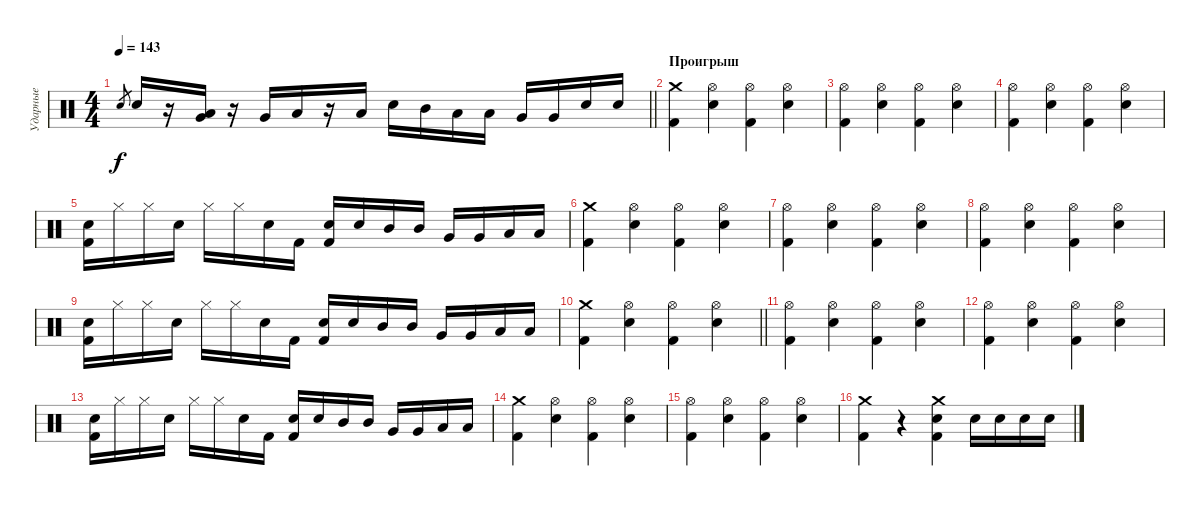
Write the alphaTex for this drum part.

\track ("Ударные" "Ударные") {instrument percussion}
\staff {score}
\articulation defaults
\ts (4 4)
\tempo 143
\clef neutral
\barLineRight lightlight
\ks c "Snare (hit) 2".8{gr dy f} "Snare (hit) 2".16
r.16 ("Low Tom (hit)" "Very Low Tom (hit)").16 r.16 "Very Low Tom (hit)".16 "Low Floor Tom (hit)".16 r.16 "Low Floor Tom (hit)".16 "Snare (hit) 2".16 "Mid Tom (hit)".16 "Low Tom (hit)".16 "Low Tom (hit)".16 "Very Low Tom (hit)".16 "Very Low Tom (hit)".16 "Snare (hit) 2".16 "Snare (hit) 2".16 |
\section ("" "Проигрыш")
("Kick (hit) 2" "Crash medium (hit)").4 ("Hi-Hat (open)" "Snare (hit) 2").4 ("Hi-Hat (open)" "Kick (hit) 2").4 ("Hi-Hat (open)" "Snare (hit) 2").4 |
("Kick (hit) 2" "Hi-Hat (open)").4 ("Hi-Hat (open)" "Snare (hit) 2").4 ("Hi-Hat (open)" "Kick (hit) 2").4 ("Hi-Hat (open)" "Snare (hit) 2").4 |
("Kick (hit) 2" "Hi-Hat (open)").4 ("Hi-Hat (open)" "Snare (hit) 2").4 ("Hi-Hat (open)" "Kick (hit) 2").4 ("Hi-Hat (open)" "Snare (hit) 2").4 |
("Kick (hit) 2" "Snare (hit) 2").16 "Hi-Hat (closed)".16 "Hi-Hat (closed)".16 "Snare (hit) 2".16 "Hi-Hat (closed)".16 "Hi-Hat (closed)".16 "Snare (hit) 2".16 "Kick (hit) 2".16 ("Kick (hit) 2" "Snare (hit) 2").16 "Snare (hit) 2".16 "Mid Tom (hit)".16 "Mid Tom (hit)".16 "Very Low Tom (hit)".16 "Very Low Tom (hit)".16 "Low Floor Tom (hit)".16 "Low Floor Tom (hit)".16 |
("Kick (hit) 2" "Crash medium (hit)").4 ("Hi-Hat (open)" "Snare (hit) 2").4 ("Hi-Hat (open)" "Kick (hit) 2").4 ("Hi-Hat (open)" "Snare (hit) 2").4 |
("Kick (hit) 2" "Hi-Hat (open)").4 ("Hi-Hat (open)" "Snare (hit) 2").4 ("Hi-Hat (open)" "Kick (hit) 2").4 ("Hi-Hat (open)" "Snare (hit) 2").4 |
("Kick (hit) 2" "Hi-Hat (open)").4 ("Hi-Hat (open)" "Snare (hit) 2").4 ("Hi-Hat (open)" "Kick (hit) 2").4 ("Hi-Hat (open)" "Snare (hit) 2").4 |
("Kick (hit) 2" "Snare (hit) 2").16 "Hi-Hat (closed)".16 "Hi-Hat (closed)".16 "Snare (hit) 2".16 "Hi-Hat (closed)".16 "Hi-Hat (closed)".16 "Snare (hit) 2".16 "Kick (hit) 2".16 ("Kick (hit) 2" "Snare (hit) 2").16 "Snare (hit) 2".16 "Mid Tom (hit)".16 "Mid Tom (hit)".16 "Very Low Tom (hit)".16 "Very Low Tom (hit)".16 "Low Floor Tom (hit)".16 "Low Floor Tom (hit)".16 |
\barLineRight lightlight
("Kick (hit) 2" "Crash medium (hit)").4 ("Hi-Hat (open)" "Snare (hit) 2").4 ("Hi-Hat (open)" "Kick (hit) 2").4 ("Hi-Hat (open)" "Snare (hit) 2").4 |
\section ("" "")
("Kick (hit) 2" "Hi-Hat (open)").4 ("Hi-Hat (open)" "Snare (hit) 2").4 ("Hi-Hat (open)" "Kick (hit) 2").4 ("Hi-Hat (open)" "Snare (hit) 2").4 |
("Kick (hit) 2" "Hi-Hat (open)").4 ("Hi-Hat (open)" "Snare (hit) 2").4 ("Hi-Hat (open)" "Kick (hit) 2").4 ("Hi-Hat (open)" "Snare (hit) 2").4 |
("Kick (hit) 2" "Snare (hit) 2").16 "Hi-Hat (closed)".16 "Hi-Hat (closed)".16 "Snare (hit) 2".16 "Hi-Hat (closed)".16 "Hi-Hat (closed)".16 "Snare (hit) 2".16 "Kick (hit) 2".16 ("Kick (hit) 2" "Snare (hit) 2").16 "Snare (hit) 2".16 "Mid Tom (hit)".16 "Mid Tom (hit)".16 "Very Low Tom (hit)".16 "Very Low Tom (hit)".16 "Low Floor Tom (hit)".16 "Low Floor Tom (hit)".16 |
("Kick (hit) 2" "Crash medium (hit)").4 ("Hi-Hat (open)" "Snare (hit) 2").4 ("Hi-Hat (open)" "Kick (hit) 2").4 ("Hi-Hat (open)" "Snare (hit) 2").4 |
("Kick (hit) 2" "Hi-Hat (open)").4 ("Hi-Hat (open)" "Snare (hit) 2").4 ("Hi-Hat (open)" "Kick (hit) 2").4 ("Hi-Hat (open)" "Snare (hit) 2").4 |
("Kick (hit) 2" "Crash medium (hit)").4 r.4 ("Snare (hit) 2" "Kick (hit) 2" "Crash medium (hit)").4 "Snare (hit) 2".16 "Snare (hit) 2".16 "Snare (hit) 2".16 "Snare (hit) 2".16
